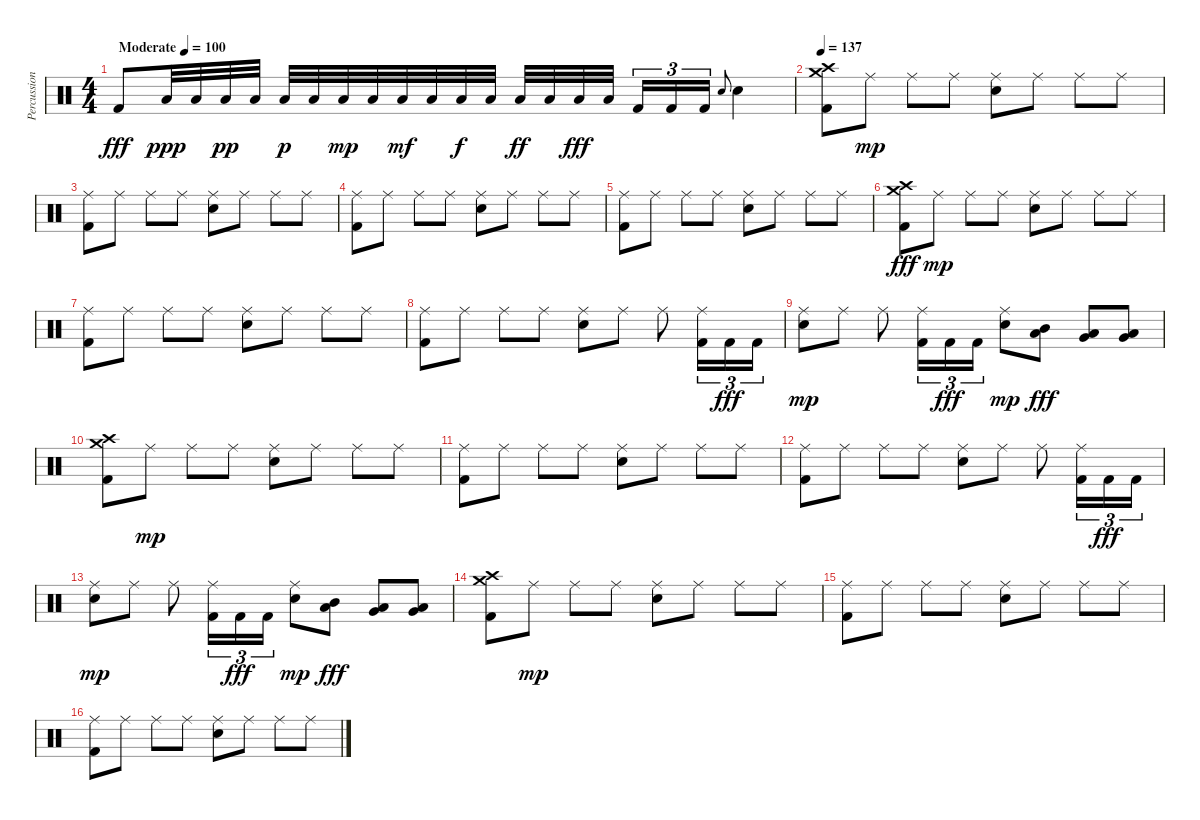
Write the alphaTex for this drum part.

\track ("Percussion" "Percussion") {instrument percussion}
\staff {score}
\articulation defaults
\ts (4 4)
\tempo (100 "Moderate")
\clef neutral
\ks c "Kick (hit) 2".8{dy fff} "Low Floor Tom (hit)".32{dy ppp} "Low Floor Tom (hit)".32 "Low Floor Tom (hit)".32{dy pp} "Low Floor Tom (hit)".32 "Low Floor Tom (hit)".32{dy p} "Low Floor Tom (hit)".32 "Low Floor Tom (hit)".32{dy mp} "Low Floor Tom (hit)".32 "Low Floor Tom (hit)".32{dy mf} "Low Floor Tom (hit)".32 "Low Floor Tom (hit)".32{dy f} "Low Floor Tom (hit)".32 "Low Floor Tom (hit)".32{dy ff} "Low Floor Tom (hit)".32 "Low Floor Tom (hit)".32{dy fff} "Low Floor Tom (hit)".32{beam splitsecondary} "Kick (hit) 2".16{tu (3 2)} "Kick (hit) 2".16{tu (3 2)} "Kick (hit) 2".16{tu (3 2)} "Electric Snare (hit)".8{gr onbeat} "Electric Snare (hit)".4
|
\tempo 137
("Kick (hit) 2" "Crash medium (hit)" "Crash high (hit)").8 "Ride (middle)".8{dy mp} "Ride (middle)".8 "Ride (middle)".8 ("Electric Snare (hit)" "Ride (middle)").8 "Ride (middle)".8 "Ride (middle)".8 "Ride (middle)".8 |
("Kick (hit) 2" "Ride (middle)").8 "Ride (middle)".8 "Ride (middle)".8 "Ride (middle)".8 ("Electric Snare (hit)" "Ride (middle)").8 "Ride (middle)".8 "Ride (middle)".8 "Ride (middle)".8 |
("Kick (hit) 2" "Ride (middle)").8 "Ride (middle)".8 "Ride (middle)".8 "Ride (middle)".8 ("Electric Snare (hit)" "Ride (middle)").8 "Ride (middle)".8 "Ride (middle)".8 "Ride (middle)".8 |
("Kick (hit) 2" "Ride (middle)").8 "Ride (middle)".8 "Ride (middle)".8 "Ride (middle)".8 ("Electric Snare (hit)" "Ride (middle)").8 "Ride (middle)".8 "Ride (middle)".8 "Ride (middle)".8 |
("Kick (hit) 2" "Crash medium (hit)" "Crash high (hit)").8{dy fff} "Ride (middle)".8{dy mp} "Ride (middle)".8 "Ride (middle)".8 ("Electric Snare (hit)" "Ride (middle)").8 "Ride (middle)".8 "Ride (middle)".8 "Ride (middle)".8 |
("Kick (hit) 2" "Ride (middle)").8 "Ride (middle)".8 "Ride (middle)".8 "Ride (middle)".8 ("Electric Snare (hit)" "Ride (middle)").8 "Ride (middle)".8 "Ride (middle)".8 "Ride (middle)".8 |
("Kick (hit) 2" "Ride (middle)").8 "Ride (middle)".8 "Ride (middle)".8 "Ride (middle)".8 ("Electric Snare (hit)" "Ride (middle)").8 "Ride (middle)".8 "Ride (middle)".8 ("Kick (hit) 2" "Ride (middle)").16{tu (3 2)} "Kick (hit) 2".16{tu (3 2) dy fff} "Kick (hit) 2".16{tu (3 2)} |
("Electric Snare (hit)" "Ride (middle)").8{dy mp} "Ride (middle)".8 "Ride (middle)".8 ("Kick (hit) 2" "Ride (middle)").16{tu (3 2)} "Kick (hit) 2".16{tu (3 2) dy fff} "Kick (hit) 2".16{tu (3 2)} ("Electric Snare (hit)" "Ride (middle)").8{dy mp} ("Low Tom (hit)" "Mid Tom (hit)").8{dy fff} ("Very Low Tom (hit)" "Low Tom (hit)").8 ("Low Floor Tom (hit)" "Very Low Tom (hit)").8 |
("Kick (hit) 2" "Crash medium (hit)" "Crash high (hit)").8 "Ride (middle)".8{dy mp} "Ride (middle)".8 "Ride (middle)".8 ("Electric Snare (hit)" "Ride (middle)").8 "Ride (middle)".8 "Ride (middle)".8 "Ride (middle)".8 |
("Kick (hit) 2" "Ride (middle)").8 "Ride (middle)".8 "Ride (middle)".8 "Ride (middle)".8 ("Electric Snare (hit)" "Ride (middle)").8 "Ride (middle)".8 "Ride (middle)".8 "Ride (middle)".8 |
("Kick (hit) 2" "Ride (middle)").8 "Ride (middle)".8 "Ride (middle)".8 "Ride (middle)".8 ("Electric Snare (hit)" "Ride (middle)").8 "Ride (middle)".8 "Ride (middle)".8 ("Kick (hit) 2" "Ride (middle)").16{tu (3 2)} "Kick (hit) 2".16{tu (3 2) dy fff} "Kick (hit) 2".16{tu (3 2)} |
("Electric Snare (hit)" "Ride (middle)").8{dy mp} "Ride (middle)".8 "Ride (middle)".8 ("Kick (hit) 2" "Ride (middle)").16{tu (3 2)} "Kick (hit) 2".16{tu (3 2) dy fff} "Kick (hit) 2".16{tu (3 2)} ("Electric Snare (hit)" "Ride (middle)").8{dy mp} ("Low Tom (hit)" "Mid Tom (hit)").8{dy fff} ("Very Low Tom (hit)" "Low Tom (hit)").8 ("Low Floor Tom (hit)" "Very Low Tom (hit)").8 |
("Kick (hit) 2" "Crash medium (hit)" "Crash high (hit)").8 "Ride (middle)".8{dy mp} "Ride (middle)".8 "Ride (middle)".8 ("Electric Snare (hit)" "Ride (middle)").8 "Ride (middle)".8 "Ride (middle)".8 "Ride (middle)".8 |
("Kick (hit) 2" "Ride (middle)").8 "Ride (middle)".8 "Ride (middle)".8 "Ride (middle)".8 ("Electric Snare (hit)" "Ride (middle)").8 "Ride (middle)".8 "Ride (middle)".8 "Ride (middle)".8 |
("Kick (hit) 2" "Ride (middle)").8 "Ride (middle)".8 "Ride (middle)".8 "Ride (middle)".8 ("Electric Snare (hit)" "Ride (middle)").8 "Ride (middle)".8 "Ride (middle)".8 "Ride (middle)".8
